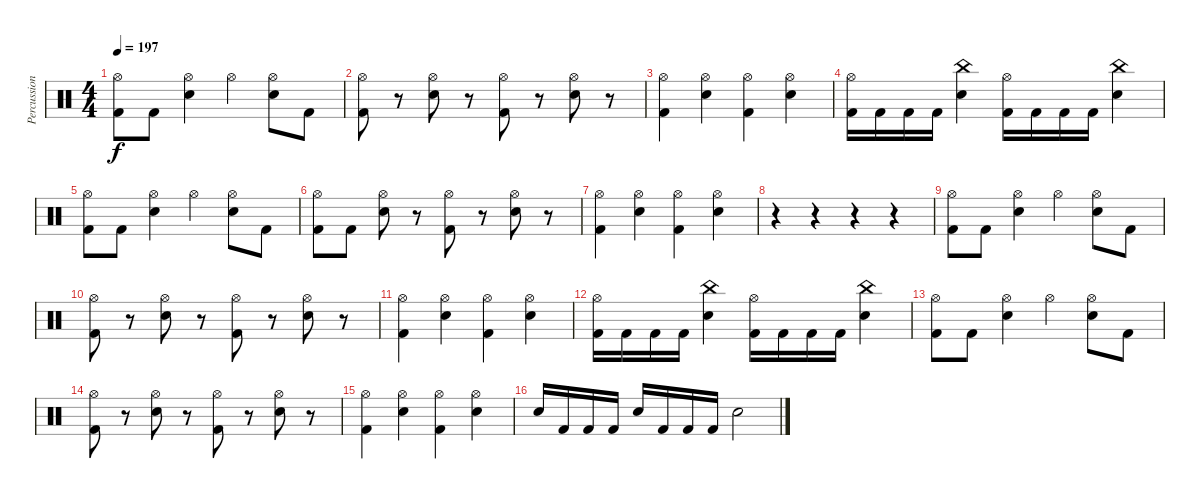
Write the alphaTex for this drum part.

\track ("Percussion" "Percussion") {instrument percussion}
\staff {score}
\articulation defaults
\ts (4 4)
\tempo 197
\clef neutral
\ks c
("Hi-Hat (open)" "Kick (hit) 2").8{dy f} "Kick (hit) 2".8 ("Hi-Hat (open)" "Electric Snare (hit)").4 "Hi-Hat (open)".4 ("Hi-Hat (open)" "Electric Snare (hit)").8 "Kick (hit) 2".8 |
("Hi-Hat (open)" "Kick (hit) 2").8 r.8 ("Hi-Hat (open)" "Electric Snare (hit)").8 r.8 ("Hi-Hat (open)" "Kick (hit) 2").8 r.8 ("Hi-Hat (open)" "Electric Snare (hit)").8 r.8 |
("Hi-Hat (open)" "Kick (hit) 2").4 ("Hi-Hat (open)" "Electric Snare (hit)").4 ("Hi-Hat (open)" "Kick (hit) 2").4 ("Hi-Hat (open)" "Electric Snare (hit)").4 |
("Hi-Hat (open)" "Kick (hit) 2").16 "Kick (hit) 2".16 "Kick (hit) 2".16 "Kick (hit) 2".16 ("China (hit)" "Electric Snare (hit)").4 ("Hi-Hat (open)" "Kick (hit) 2").16 "Kick (hit) 2".16 "Kick (hit) 2".16 "Kick (hit) 2".16 ("China (hit)" "Electric Snare (hit)").4 |
("Hi-Hat (open)" "Kick (hit) 2").8 "Kick (hit) 2".8 ("Hi-Hat (open)" "Electric Snare (hit)").4 "Hi-Hat (open)".4 ("Hi-Hat (open)" "Electric Snare (hit)").8 "Kick (hit) 2".8 |
("Hi-Hat (open)" "Kick (hit) 2").8 "Kick (hit) 2".8 ("Hi-Hat (open)" "Electric Snare (hit)").8 r.8 ("Hi-Hat (open)" "Kick (hit) 2").8 r.8 ("Hi-Hat (open)" "Electric Snare (hit)").8 r.8 |
("Hi-Hat (open)" "Kick (hit) 2").4 ("Hi-Hat (open)" "Electric Snare (hit)").4 ("Hi-Hat (open)" "Kick (hit) 2").4 ("Hi-Hat (open)" "Electric Snare (hit)").4 |
r.4 r.4 r.4 r.4 |
("Hi-Hat (open)" "Kick (hit) 2").8 "Kick (hit) 2".8 ("Hi-Hat (open)" "Electric Snare (hit)").4 "Hi-Hat (open)".4 ("Hi-Hat (open)" "Electric Snare (hit)").8 "Kick (hit) 2".8 |
("Hi-Hat (open)" "Kick (hit) 2").8 r.8 ("Hi-Hat (open)" "Electric Snare (hit)").8 r.8 ("Hi-Hat (open)" "Kick (hit) 2").8 r.8 ("Hi-Hat (open)" "Electric Snare (hit)").8 r.8 |
("Hi-Hat (open)" "Kick (hit) 2").4 ("Hi-Hat (open)" "Electric Snare (hit)").4 ("Hi-Hat (open)" "Kick (hit) 2").4 ("Hi-Hat (open)" "Electric Snare (hit)").4 |
("Hi-Hat (open)" "Kick (hit) 2").16 "Kick (hit) 2".16 "Kick (hit) 2".16 "Kick (hit) 2".16 ("China (hit)" "Electric Snare (hit)").4 ("Hi-Hat (open)" "Kick (hit) 2").16 "Kick (hit) 2".16 "Kick (hit) 2".16 "Kick (hit) 2".16 ("China (hit)" "Electric Snare (hit)").4 |
("Hi-Hat (open)" "Kick (hit) 2").8 "Kick (hit) 2".8 ("Hi-Hat (open)" "Electric Snare (hit)").4 "Hi-Hat (open)".4 ("Hi-Hat (open)" "Electric Snare (hit)").8 "Kick (hit) 2".8 |
("Hi-Hat (open)" "Kick (hit) 2").8 r.8 ("Hi-Hat (open)" "Electric Snare (hit)").8 r.8 ("Hi-Hat (open)" "Kick (hit) 2").8 r.8 ("Hi-Hat (open)" "Electric Snare (hit)").8 r.8 |
("Hi-Hat (open)" "Kick (hit) 2").4 ("Hi-Hat (open)" "Electric Snare (hit)").4 ("Hi-Hat (open)" "Kick (hit) 2").4 ("Hi-Hat (open)" "Electric Snare (hit)").4 |
"Electric Snare (hit)".16 "Kick (hit) 2".16 "Kick (hit) 2".16 "Kick (hit) 2".16 "Electric Snare (hit)".16 "Kick (hit) 2".16 "Kick (hit) 2".16 "Kick (hit) 2".16 "Electric Snare (hit)".2
